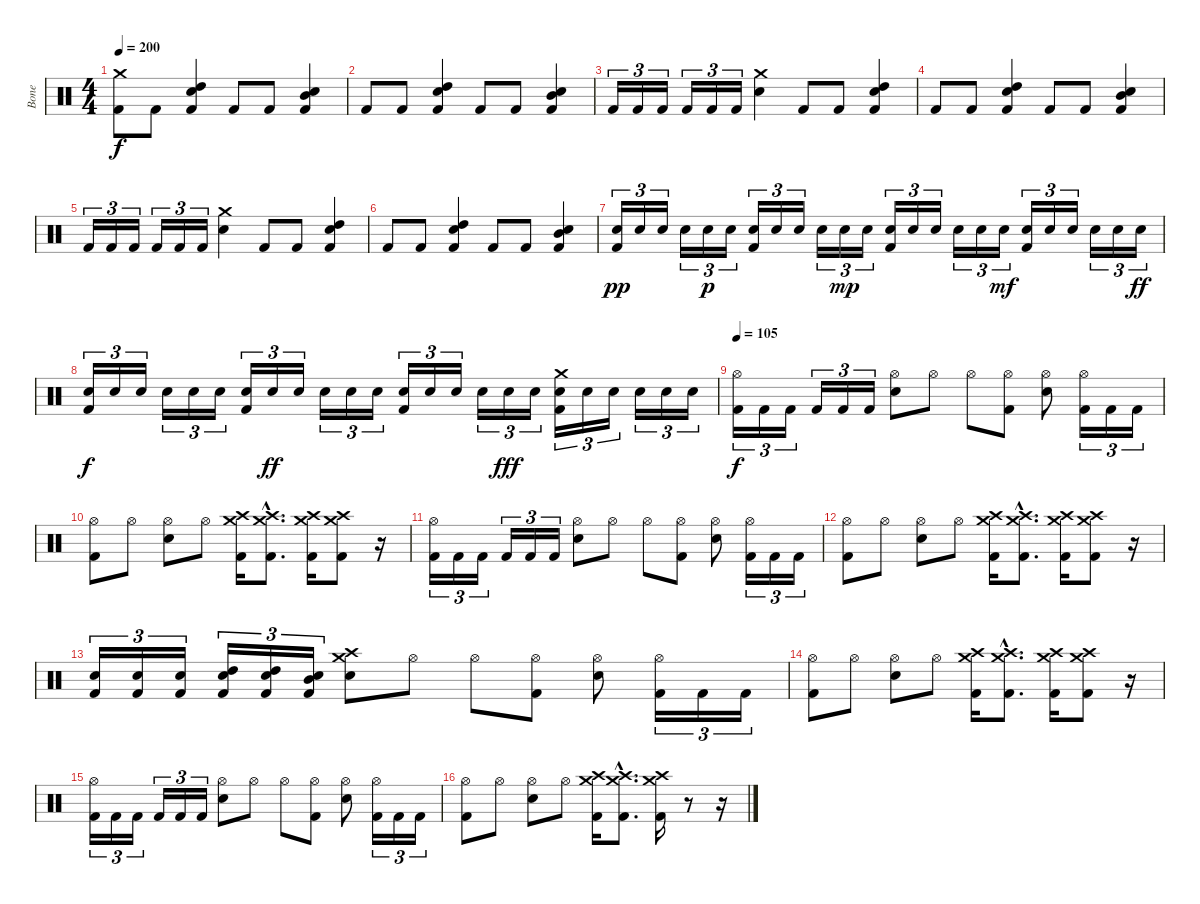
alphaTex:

\track ("Bone " "Bone ") {instrument percussion}
\staff {score}
\articulation defaults
\ts (4 4)
\tempo 200
\clef neutral
\ks c
("Crash medium (hit)" "Kick (hit) 2").8{dy f} "Kick (hit) 2".8 ("High Tom (hit)" "Electric Snare (hit)" "Kick (hit) 2").4 "Kick (hit) 2".8 "Kick (hit) 2".8 ("Mid Tom (hit)" "Electric Snare (hit)" "Kick (hit) 2").4 |
"Kick (hit) 2".8 "Kick (hit) 2".8 ("High Tom (hit)" "Electric Snare (hit)" "Kick (hit) 2").4 "Kick (hit) 2".8 "Kick (hit) 2".8 ("Mid Tom (hit)" "Electric Snare (hit)" "Kick (hit) 2").4 |
"Kick (hit) 2".16{tu (3 2)} "Kick (hit) 2".16{tu (3 2)} "Kick (hit) 2".16{tu (3 2)} "Kick (hit) 2".16{tu (3 2)} "Kick (hit) 2".16{tu (3 2)} "Kick (hit) 2".16{tu (3 2)} ("Crash medium (hit)" "Electric Snare (hit)").4 "Kick (hit) 2".8 "Kick (hit) 2".8 ("High Tom (hit)" "Electric Snare (hit)" "Kick (hit) 2").4 |
"Kick (hit) 2".8 "Kick (hit) 2".8 ("High Tom (hit)" "Electric Snare (hit)" "Kick (hit) 2").4 "Kick (hit) 2".8 "Kick (hit) 2".8 ("Mid Tom (hit)" "Electric Snare (hit)" "Kick (hit) 2").4 |
"Kick (hit) 2".16{tu (3 2)} "Kick (hit) 2".16{tu (3 2)} "Kick (hit) 2".16{tu (3 2)} "Kick (hit) 2".16{tu (3 2)} "Kick (hit) 2".16{tu (3 2)} "Kick (hit) 2".16{tu (3 2)} ("Crash medium (hit)" "Electric Snare (hit)").4 "Kick (hit) 2".8 "Kick (hit) 2".8 ("High Tom (hit)" "Electric Snare (hit)" "Kick (hit) 2").4 |
"Kick (hit) 2".8 "Kick (hit) 2".8 ("High Tom (hit)" "Electric Snare (hit)" "Kick (hit) 2").4 "Kick (hit) 2".8 "Kick (hit) 2".8 ("Mid Tom (hit)" "Electric Snare (hit)" "Kick (hit) 2").4 |
("Electric Snare (hit)" "Kick (hit) 2").16{tu (3 2) dy pp} "Electric Snare (hit)".16{tu (3 2)} "Electric Snare (hit)".16{tu (3 2)} "Electric Snare (hit)".16{tu (3 2)} "Electric Snare (hit)".16{tu (3 2) dy p} "Electric Snare (hit)".16{tu (3 2)} ("Electric Snare (hit)" "Kick (hit) 2").16{tu (3 2)} "Electric Snare (hit)".16{tu (3 2)} "Electric Snare (hit)".16{tu (3 2)} "Electric Snare (hit)".16{tu (3 2)} "Electric Snare (hit)".16{tu (3 2) dy mp} "Electric Snare (hit)".16{tu (3 2)} ("Electric Snare (hit)" "Kick (hit) 2").16{tu (3 2)} "Electric Snare (hit)".16{tu (3 2)} "Electric Snare (hit)".16{tu (3 2)} "Electric Snare (hit)".16{tu (3 2)} "Electric Snare (hit)".16{tu (3 2)} "Electric Snare (hit)".16{tu (3 2) dy mf} ("Electric Snare (hit)" "Kick (hit) 2").16{tu (3 2)} "Electric Snare (hit)".16{tu (3 2)} "Electric Snare (hit)".16{tu (3 2)} "Electric Snare (hit)".16{tu (3 2)} "Electric Snare (hit)".16{tu (3 2)} "Electric Snare (hit)".16{tu (3 2) dy ff} |
("Electric Snare (hit)" "Kick (hit) 2").16{tu (3 2) dy f} "Electric Snare (hit)".16{tu (3 2)} "Electric Snare (hit)".16{tu (3 2)} "Electric Snare (hit)".16{tu (3 2)} "Electric Snare (hit)".16{tu (3 2)} "Electric Snare (hit)".16{tu (3 2)} ("Electric Snare (hit)" "Kick (hit) 2").16{tu (3 2)} "Electric Snare (hit)".16{tu (3 2) dy ff} "Electric Snare (hit)".16{tu (3 2)} "Electric Snare (hit)".16{tu (3 2)} "Electric Snare (hit)".16{tu (3 2)} "Electric Snare (hit)".16{tu (3 2)} ("Electric Snare (hit)" "Kick (hit) 2").16{tu (3 2)} "Electric Snare (hit)".16{tu (3 2)} "Electric Snare (hit)".16{tu (3 2)} "Electric Snare (hit)".16{tu (3 2)} "Electric Snare (hit)".16{tu (3 2) dy fff} "Electric Snare (hit)".16{tu (3 2)} ("Crash medium (hit)" "Electric Snare (hit)" "Kick (hit) 2").16{tu (3 2)} "Electric Snare (hit)".16{tu (3 2)} "Electric Snare (hit)".16{tu (3 2)} "Electric Snare (hit)".16{tu (3 2)} "Electric Snare (hit)".16{tu (3 2)} "Electric Snare (hit)".16{tu (3 2)} |
\tempo 105
("Hi-Hat (open)" "Kick (hit) 2").16{tu (3 2) dy f} "Kick (hit) 2".16{tu (3 2)} "Kick (hit) 2".16{tu (3 2)} "Kick (hit) 2".16{tu (3 2)} "Kick (hit) 2".16{tu (3 2)} "Kick (hit) 2".16{tu (3 2)} ("Hi-Hat (open)" "Electric Snare (hit)").8 "Hi-Hat (open)".8 "Hi-Hat (open)".8 ("Hi-Hat (open)" "Kick (hit) 2").8 ("Hi-Hat (open)" "Electric Snare (hit)").8 ("Hi-Hat (open)" "Kick (hit) 2").16{tu (3 2)} "Kick (hit) 2".16{tu (3 2)} "Kick (hit) 2".16{tu (3 2)} |
("Hi-Hat (open)" "Kick (hit) 2").8 "Hi-Hat (open)".8 ("Hi-Hat (open)" "Electric Snare (hit)").8 "Hi-Hat (open)".8 ("Crash medium (hit)" "Crash high (hit)" "Kick (hit) 2").16 ("Crash medium (hit)"{hac} "Crash high (hit)"{hac} "Kick (hit) 2"{hac}).8{d} ("Crash medium (hit)" "Crash high (hit)" "Kick (hit) 2").16 ("Crash medium (hit)" "Crash high (hit)" "Kick (hit) 2").8 r.16 |
("Hi-Hat (open)" "Kick (hit) 2").16{tu (3 2)} "Kick (hit) 2".16{tu (3 2)} "Kick (hit) 2".16{tu (3 2)} "Kick (hit) 2".16{tu (3 2)} "Kick (hit) 2".16{tu (3 2)} "Kick (hit) 2".16{tu (3 2)} ("Hi-Hat (open)" "Electric Snare (hit)").8 "Hi-Hat (open)".8 "Hi-Hat (open)".8 ("Hi-Hat (open)" "Kick (hit) 2").8 ("Hi-Hat (open)" "Electric Snare (hit)").8 ("Hi-Hat (open)" "Kick (hit) 2").16{tu (3 2)} "Kick (hit) 2".16{tu (3 2)} "Kick (hit) 2".16{tu (3 2)} |
("Hi-Hat (open)" "Kick (hit) 2").8 "Hi-Hat (open)".8 ("Hi-Hat (open)" "Electric Snare (hit)").8 "Hi-Hat (open)".8 ("Crash medium (hit)" "Crash high (hit)" "Kick (hit) 2").16 ("Crash medium (hit)"{hac} "Crash high (hit)"{hac} "Kick (hit) 2"{hac}).8{d} ("Crash medium (hit)" "Crash high (hit)" "Kick (hit) 2").16 ("Crash medium (hit)" "Crash high (hit)" "Kick (hit) 2").8 r.16 |
("Electric Snare (hit)" "Kick (hit) 2").16{tu (3 2)} ("Electric Snare (hit)" "Kick (hit) 2").16{tu (3 2)} ("Electric Snare (hit)" "Kick (hit) 2").16{tu (3 2)} ("Electric Snare (hit)" "High Tom (hit)" "Kick (hit) 2").16{tu (3 2)} ("Electric Snare (hit)" "High Tom (hit)" "Kick (hit) 2").16{tu (3 2)} ("Electric Snare (hit)" "Mid Tom (hit)" "Kick (hit) 2").16{tu (3 2)} ("Crash medium (hit)" "Crash high (hit)" "Electric Snare (hit)").8 "Hi-Hat (open)".8 "Hi-Hat (open)".8 ("Hi-Hat (open)" "Kick (hit) 2").8 ("Hi-Hat (open)" "Electric Snare (hit)").8 ("Hi-Hat (open)" "Kick (hit) 2").16{tu (3 2)} "Kick (hit) 2".16{tu (3 2)} "Kick (hit) 2".16{tu (3 2)} |
("Hi-Hat (open)" "Kick (hit) 2").8 "Hi-Hat (open)".8 ("Hi-Hat (open)" "Electric Snare (hit)").8 "Hi-Hat (open)".8 ("Crash medium (hit)" "Crash high (hit)" "Kick (hit) 2").16 ("Crash medium (hit)"{hac} "Crash high (hit)"{hac} "Kick (hit) 2"{hac}).8{d} ("Crash medium (hit)" "Crash high (hit)" "Kick (hit) 2").16 ("Crash medium (hit)" "Crash high (hit)" "Kick (hit) 2").8 r.16 |
("Hi-Hat (open)" "Kick (hit) 2").16{tu (3 2)} "Kick (hit) 2".16{tu (3 2)} "Kick (hit) 2".16{tu (3 2)} "Kick (hit) 2".16{tu (3 2)} "Kick (hit) 2".16{tu (3 2)} "Kick (hit) 2".16{tu (3 2)} ("Hi-Hat (open)" "Electric Snare (hit)").8 "Hi-Hat (open)".8 "Hi-Hat (open)".8 ("Hi-Hat (open)" "Kick (hit) 2").8 ("Hi-Hat (open)" "Electric Snare (hit)").8 ("Hi-Hat (open)" "Kick (hit) 2").16{tu (3 2)} "Kick (hit) 2".16{tu (3 2)} "Kick (hit) 2".16{tu (3 2)} |
("Hi-Hat (open)" "Kick (hit) 2").8 "Hi-Hat (open)".8 ("Hi-Hat (open)" "Electric Snare (hit)").8 "Hi-Hat (open)".8 ("Crash medium (hit)" "Crash high (hit)" "Kick (hit) 2").16 ("Crash medium (hit)"{hac} "Crash high (hit)"{hac} "Kick (hit) 2"{hac}).8{d} ("Crash medium (hit)" "Crash high (hit)" "Kick (hit) 2").16 r.8 r.16
